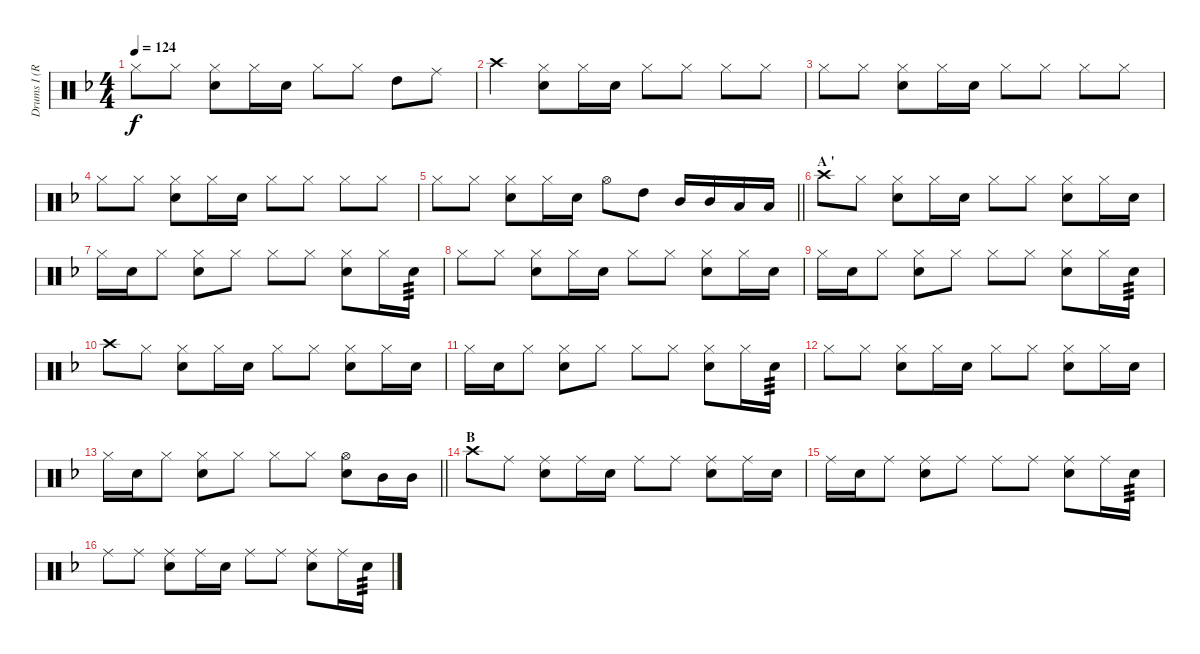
\track ("Drums I (RUKA)" "Drums I (R") {instrument percussion}
\staff {score}
\articulation defaults
\ts (4 4)
\tempo 124
\clef neutral
\ks f "Hi-Hat (closed)".8{dy f} "Hi-Hat (closed)".8
("Hi-Hat (closed)" "Snare (hit) 2").8 "Hi-Hat (closed)".16 "Snare (hit) 2".16 "Hi-Hat (closed)".8 "Hi-Hat (closed)".8 "High Tom (hit)".8 "Ride (middle)".8 |
"Crash high (hit)".4 ("Hi-Hat (closed)" "Snare (hit) 2").8 "Hi-Hat (closed)".16 "Snare (hit) 2".16 "Hi-Hat (closed)".8 "Hi-Hat (closed)".8 "Hi-Hat (closed)".8 "Hi-Hat (closed)".8 |
"Hi-Hat (closed)".8 "Hi-Hat (closed)".8 ("Hi-Hat (closed)" "Snare (hit) 2").8 "Hi-Hat (closed)".16 "Snare (hit) 2".16 "Hi-Hat (closed)".8 "Hi-Hat (closed)".8 "Hi-Hat (closed)".8 "Hi-Hat (closed)".8 |
"Hi-Hat (closed)".8 "Hi-Hat (closed)".8 ("Hi-Hat (closed)" "Snare (hit) 2").8 "Hi-Hat (closed)".16 "Snare (hit) 2".16 "Hi-Hat (closed)".8 "Hi-Hat (closed)".8 "Hi-Hat (closed)".8 "Hi-Hat (closed)".8 |
\barLineRight lightlight "Hi-Hat (closed)".8 "Hi-Hat (closed)".8
("Hi-Hat (closed)" "Snare (hit) 2").8 "Hi-Hat (closed)".16 "Snare (hit) 2".16 "Hi-Hat (open)".8 "High Tom (hit)".8 "Mid Tom (hit)".16 "Mid Tom (hit)".16 "Low Tom (hit)".16 "Low Tom (hit)".16 |
\section ("" "A '")
"Crash high (hit)".8 "Hi-Hat (closed)".8 ("Hi-Hat (closed)" "Snare (hit) 2").8 "Hi-Hat (closed)".16 "Snare (hit) 2".16 "Hi-Hat (closed)".8 "Hi-Hat (closed)".8 ("Hi-Hat (closed)" "Snare (hit) 2").8 "Hi-Hat (closed)".16 "Snare (hit) 2".16 |
"Hi-Hat (closed)".16 "Snare (hit) 2".16 "Hi-Hat (closed)".8 ("Hi-Hat (closed)" "Snare (hit) 2").8 "Hi-Hat (closed)".8 "Hi-Hat (closed)".8 "Hi-Hat (closed)".8 ("Hi-Hat (closed)" "Snare (hit) 2").8 "Hi-Hat (closed)".16 "Snare (hit) 2".16{tp 3} |
"Hi-Hat (closed)".8 "Hi-Hat (closed)".8 ("Hi-Hat (closed)" "Snare (hit) 2").8 "Hi-Hat (closed)".16 "Snare (hit) 2".16 "Hi-Hat (closed)".8 "Hi-Hat (closed)".8 ("Hi-Hat (closed)" "Snare (hit) 2").8 "Hi-Hat (closed)".16 "Snare (hit) 2".16 |
"Hi-Hat (closed)".16 "Snare (hit) 2".16 "Hi-Hat (closed)".8 ("Hi-Hat (closed)" "Snare (hit) 2").8 "Hi-Hat (closed)".8 "Hi-Hat (closed)".8 "Hi-Hat (closed)".8 ("Hi-Hat (closed)" "Snare (hit) 2").8 "Hi-Hat (closed)".16 "Snare (hit) 2".16{tp 3} |
"Crash high (hit)".8 "Hi-Hat (closed)".8 ("Hi-Hat (closed)" "Snare (hit) 2").8 "Hi-Hat (closed)".16 "Snare (hit) 2".16 "Hi-Hat (closed)".8 "Hi-Hat (closed)".8 ("Hi-Hat (closed)" "Snare (hit) 2").8 "Hi-Hat (closed)".16 "Snare (hit) 2".16 |
"Hi-Hat (closed)".16 "Snare (hit) 2".16 "Hi-Hat (closed)".8 ("Hi-Hat (closed)" "Snare (hit) 2").8 "Hi-Hat (closed)".8 "Hi-Hat (closed)".8 "Hi-Hat (closed)".8 ("Hi-Hat (closed)" "Snare (hit) 2").8 "Hi-Hat (closed)".16 "Snare (hit) 2".16{tp 3} |
"Hi-Hat (closed)".8 "Hi-Hat (closed)".8 ("Hi-Hat (closed)" "Snare (hit) 2").8 "Hi-Hat (closed)".16 "Snare (hit) 2".16 "Hi-Hat (closed)".8 "Hi-Hat (closed)".8 ("Hi-Hat (closed)" "Snare (hit) 2").8 "Hi-Hat (closed)".16 "Snare (hit) 2".16 |
\barLineRight lightlight "Hi-Hat (closed)".16 "Snare (hit) 2".16 "Hi-Hat (closed)".8
("Hi-Hat (closed)" "Snare (hit) 2").8 "Hi-Hat (closed)".8 "Hi-Hat (closed)".8 "Hi-Hat (closed)".8 ("Hi-Hat (open)" "Snare (hit) 2").8 "Mid Tom (hit)".16 "Mid Tom (hit)".16 |
\section ("" "B")
"Crash high (hit)".8 "Ride (middle)".8 ("Ride (middle)" "Snare (hit) 2").8 "Ride (middle)".16 "Snare (hit) 2".16 "Ride (middle)".8 "Ride (middle)".8 ("Ride (middle)" "Snare (hit) 2").8 "Ride (middle)".16 "Snare (hit) 2".16 |
"Ride (middle)".16 "Snare (hit) 2".16 "Ride (middle)".8 ("Ride (middle)" "Snare (hit) 2").8 "Ride (middle)".8 "Ride (middle)".8 "Ride (middle)".8 ("Ride (middle)" "Snare (hit) 2").8 "Ride (middle)".16 "Snare (hit) 2".16{tp 3} |
"Ride (middle)".8 "Ride (middle)".8 ("Ride (middle)" "Snare (hit) 2").8 "Ride (middle)".16 "Snare (hit) 2".16 "Ride (middle)".8 "Ride (middle)".8 ("Ride (middle)" "Snare (hit) 2").8 "Ride (middle)".16 "Snare (hit) 2".16{tp 3}
